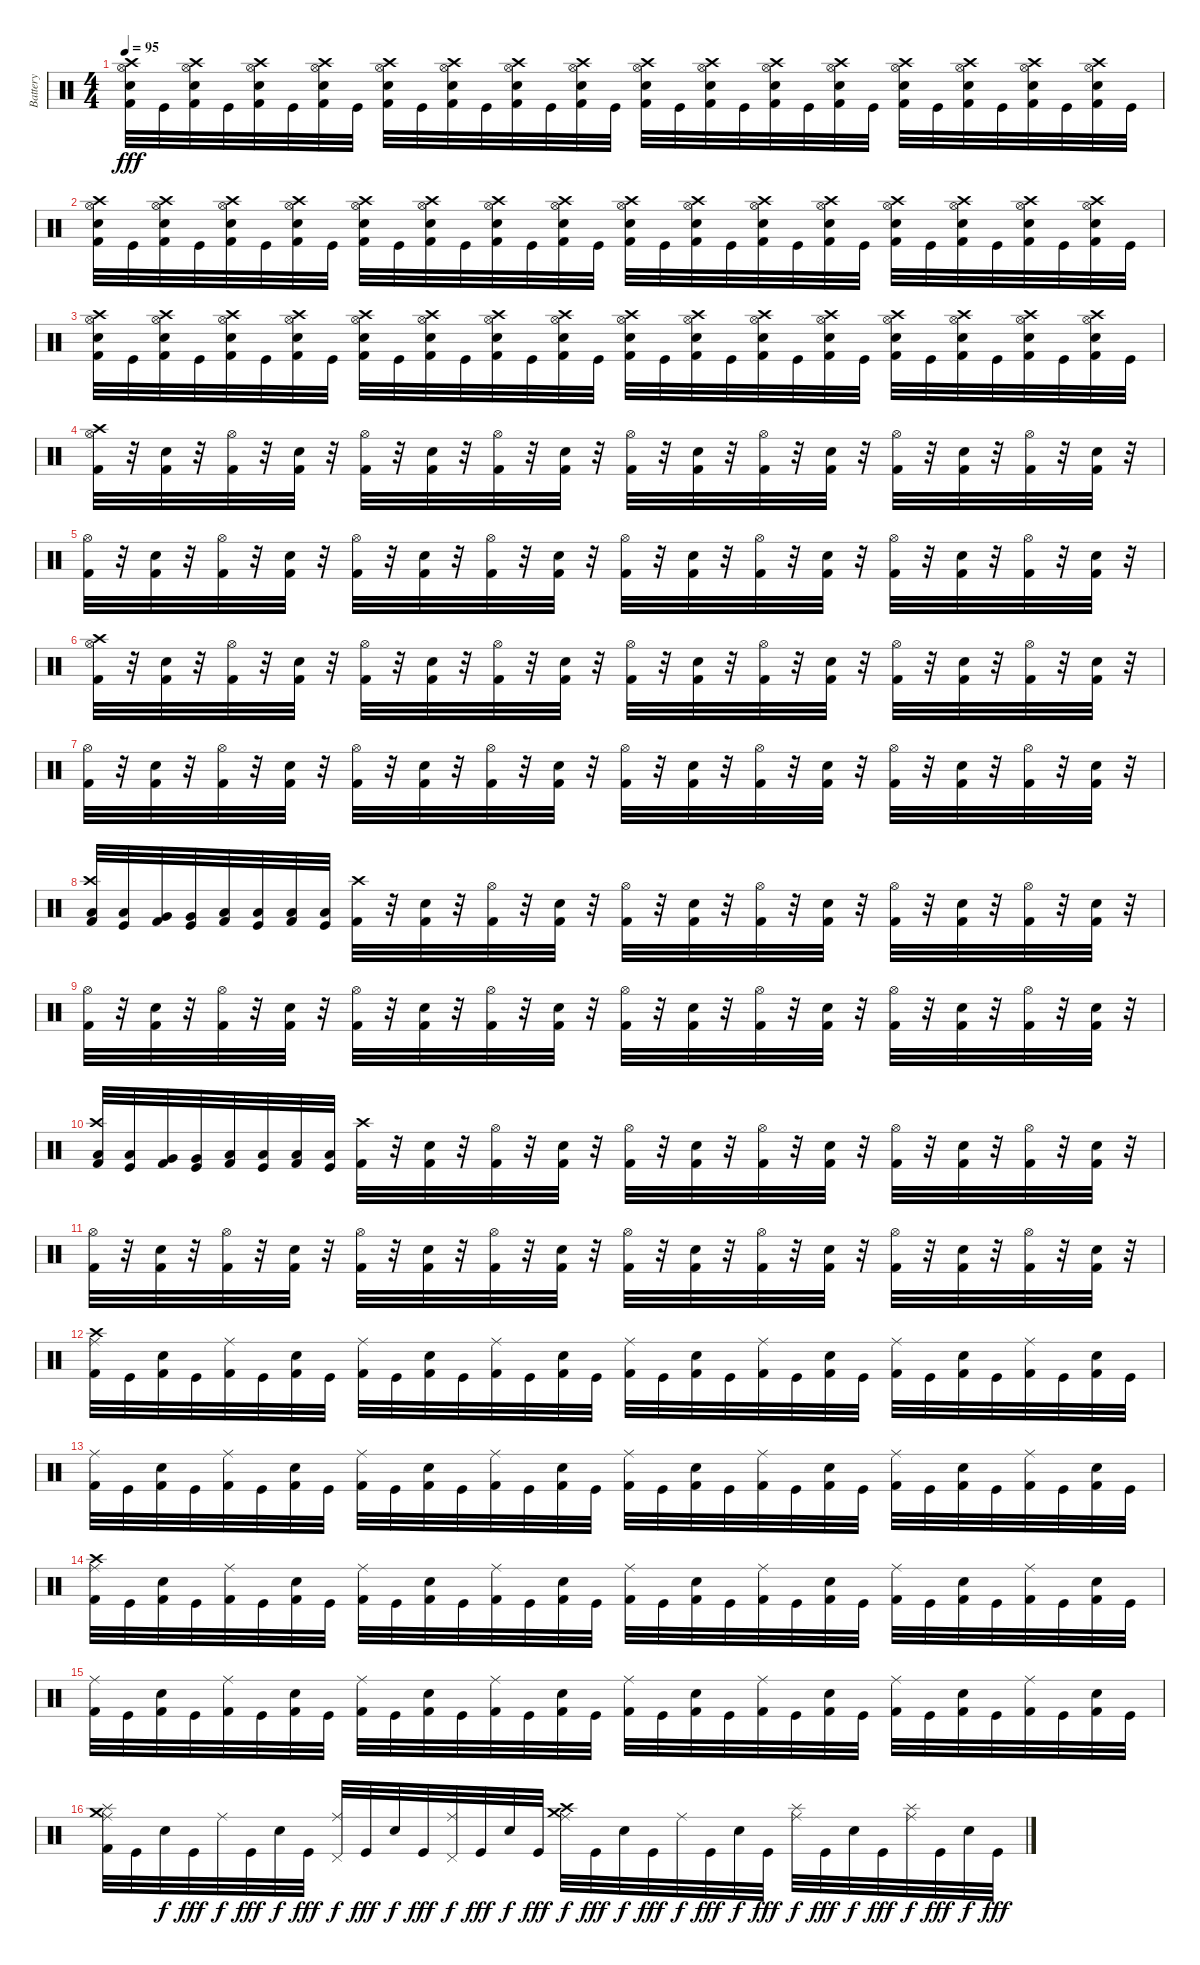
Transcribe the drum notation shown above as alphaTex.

\track ("Battery" "Battery") {instrument percussion}
\staff {score}
\articulation defaults
\ts (4 4)
\tempo 95
\clef neutral
\ks c
("Hi-Hat (open)" "Kick (hit) 2" "Crash high (hit)" "Snare (hit) 2").32{dy fff} "Kick (hit)".32 ("Crash high (hit)" "Kick (hit) 2" "Hi-Hat (open)" "Snare (hit) 2").32 "Kick (hit)".32 ("Hi-Hat (open)" "Crash high (hit)" "Kick (hit) 2" "Snare (hit) 2").32 "Kick (hit)".32 ("Kick (hit) 2" "Crash high (hit)" "Hi-Hat (open)" "Snare (hit) 2").32 "Kick (hit)".32 ("Kick (hit) 2" "Hi-Hat (open)" "Snare (hit) 2" "Crash high (hit)").32 "Kick (hit)".32 ("Kick (hit) 2" "Snare (hit) 2" "Hi-Hat (open)" "Crash high (hit)").32 "Kick (hit)".32 ("Hi-Hat (open)" "Kick (hit) 2" "Snare (hit) 2" "Crash high (hit)").32 "Kick (hit)".32 ("Kick (hit) 2" "Hi-Hat (open)" "Crash high (hit)" "Snare (hit) 2").32 "Kick (hit)".32 ("Kick (hit) 2" "Snare (hit) 2" "Hi-Hat (open)" "Crash high (hit)").32 "Kick (hit)".32 ("Snare (hit) 2" "Hi-Hat (open)" "Crash high (hit)" "Kick (hit) 2").32 "Kick (hit)".32 ("Snare (hit) 2" "Hi-Hat (open)" "Kick (hit) 2" "Crash high (hit)").32 "Kick (hit)".32 ("Snare (hit) 2" "Kick (hit) 2" "Crash high (hit)" "Hi-Hat (open)").32 "Kick (hit)".32 ("Crash high (hit)" "Hi-Hat (open)" "Kick (hit) 2" "Snare (hit) 2").32 "Kick (hit)".32 ("Snare (hit) 2" "Kick (hit) 2" "Crash high (hit)" "Hi-Hat (open)").32 "Kick (hit)".32 ("Snare (hit) 2" "Crash high (hit)" "Hi-Hat (open)" "Kick (hit) 2").32 "Kick (hit)".32 ("Hi-Hat (open)" "Kick (hit) 2" "Crash high (hit)" "Snare (hit) 2").32 "Kick (hit)".32 |
("Hi-Hat (open)" "Kick (hit) 2" "Crash high (hit)" "Snare (hit) 2").32 "Kick (hit)".32 ("Crash high (hit)" "Kick (hit) 2" "Hi-Hat (open)" "Snare (hit) 2").32 "Kick (hit)".32 ("Hi-Hat (open)" "Crash high (hit)" "Kick (hit) 2" "Snare (hit) 2").32 "Kick (hit)".32 ("Kick (hit) 2" "Crash high (hit)" "Hi-Hat (open)" "Snare (hit) 2").32 "Kick (hit)".32 ("Kick (hit) 2" "Hi-Hat (open)" "Snare (hit) 2" "Crash high (hit)").32 "Kick (hit)".32 ("Kick (hit) 2" "Snare (hit) 2" "Hi-Hat (open)" "Crash high (hit)").32 "Kick (hit)".32 ("Hi-Hat (open)" "Kick (hit) 2" "Snare (hit) 2" "Crash high (hit)").32 "Kick (hit)".32 ("Kick (hit) 2" "Hi-Hat (open)" "Crash high (hit)" "Snare (hit) 2").32 "Kick (hit)".32 ("Kick (hit) 2" "Snare (hit) 2" "Hi-Hat (open)" "Crash high (hit)").32 "Kick (hit)".32 ("Snare (hit) 2" "Hi-Hat (open)" "Crash high (hit)" "Kick (hit) 2").32 "Kick (hit)".32 ("Snare (hit) 2" "Hi-Hat (open)" "Kick (hit) 2" "Crash high (hit)").32 "Kick (hit)".32 ("Snare (hit) 2" "Kick (hit) 2" "Crash high (hit)" "Hi-Hat (open)").32 "Kick (hit)".32 ("Crash high (hit)" "Hi-Hat (open)" "Kick (hit) 2" "Snare (hit) 2").32 "Kick (hit)".32 ("Snare (hit) 2" "Kick (hit) 2" "Crash high (hit)" "Hi-Hat (open)").32 "Kick (hit)".32 ("Snare (hit) 2" "Crash high (hit)" "Hi-Hat (open)" "Kick (hit) 2").32 "Kick (hit)".32 ("Hi-Hat (open)" "Kick (hit) 2" "Crash high (hit)" "Snare (hit) 2").32 "Kick (hit)".32 |
("Hi-Hat (open)" "Kick (hit) 2" "Crash high (hit)" "Snare (hit) 2").32 "Kick (hit)".32 ("Crash high (hit)" "Kick (hit) 2" "Hi-Hat (open)" "Snare (hit) 2").32 "Kick (hit)".32 ("Hi-Hat (open)" "Crash high (hit)" "Kick (hit) 2" "Snare (hit) 2").32 "Kick (hit)".32 ("Kick (hit) 2" "Crash high (hit)" "Hi-Hat (open)" "Snare (hit) 2").32 "Kick (hit)".32 ("Kick (hit) 2" "Hi-Hat (open)" "Snare (hit) 2" "Crash high (hit)").32 "Kick (hit)".32 ("Kick (hit) 2" "Snare (hit) 2" "Hi-Hat (open)" "Crash high (hit)").32 "Kick (hit)".32 ("Hi-Hat (open)" "Kick (hit) 2" "Snare (hit) 2" "Crash high (hit)").32 "Kick (hit)".32 ("Kick (hit) 2" "Hi-Hat (open)" "Crash high (hit)" "Snare (hit) 2").32 "Kick (hit)".32 ("Kick (hit) 2" "Snare (hit) 2" "Hi-Hat (open)" "Crash high (hit)").32 "Kick (hit)".32 ("Snare (hit) 2" "Hi-Hat (open)" "Crash high (hit)" "Kick (hit) 2").32 "Kick (hit)".32 ("Snare (hit) 2" "Hi-Hat (open)" "Kick (hit) 2" "Crash high (hit)").32 "Kick (hit)".32 ("Snare (hit) 2" "Kick (hit) 2" "Crash high (hit)" "Hi-Hat (open)").32 "Kick (hit)".32 ("Crash high (hit)" "Hi-Hat (open)" "Kick (hit) 2" "Snare (hit) 2").32 "Kick (hit)".32 ("Snare (hit) 2" "Kick (hit) 2" "Crash high (hit)" "Hi-Hat (open)").32 "Kick (hit)".32 ("Snare (hit) 2" "Crash high (hit)" "Hi-Hat (open)" "Kick (hit) 2").32 "Kick (hit)".32 ("Hi-Hat (open)" "Kick (hit) 2" "Crash high (hit)" "Snare (hit) 2").32 "Kick (hit)".32 |
("Kick (hit) 2" "Hi-Hat (open)" "Crash high (hit)").32 r.32 ("Electric Snare (hit)" "Kick (hit) 2").32 r.32 ("Kick (hit) 2" "Hi-Hat (open)").32 r.32 ("Kick (hit) 2" "Electric Snare (hit)").32 r.32 ("Kick (hit) 2" "Hi-Hat (open)").32 r.32 ("Kick (hit) 2" "Electric Snare (hit)").32 r.32 ("Hi-Hat (open)" "Kick (hit) 2").32 r.32 ("Electric Snare (hit)" "Kick (hit) 2").32 r.32 ("Hi-Hat (open)" "Kick (hit) 2").32 r.32 ("Electric Snare (hit)" "Kick (hit) 2").32 r.32 ("Hi-Hat (open)" "Kick (hit) 2").32 r.32 ("Electric Snare (hit)" "Kick (hit) 2").32 r.32 ("Hi-Hat (open)" "Kick (hit) 2").32 r.32 ("Electric Snare (hit)" "Kick (hit) 2").32 r.32 ("Hi-Hat (open)" "Kick (hit) 2").32 r.32 ("Electric Snare (hit)" "Kick (hit) 2").32 r.32 |
("Kick (hit) 2" "Hi-Hat (open)").32 r.32 ("Kick (hit) 2" "Electric Snare (hit)").32 r.32 ("Kick (hit) 2" "Hi-Hat (open)").32 r.32 ("Kick (hit) 2" "Electric Snare (hit)").32 r.32 ("Hi-Hat (open)" "Kick (hit) 2").32 r.32 ("Kick (hit) 2" "Electric Snare (hit)").32 r.32 ("Kick (hit) 2" "Hi-Hat (open)").32 r.32 ("Kick (hit) 2" "Electric Snare (hit)").32 r.32 ("Kick (hit) 2" "Hi-Hat (open)").32 r.32 ("Electric Snare (hit)" "Kick (hit) 2").32 r.32 ("Hi-Hat (open)" "Kick (hit) 2").32 r.32 ("Electric Snare (hit)" "Kick (hit) 2").32 r.32 ("Hi-Hat (open)" "Kick (hit) 2").32 r.32 ("Kick (hit) 2" "Electric Snare (hit)").32 r.32 ("Kick (hit) 2" "Hi-Hat (open)").32 r.32 ("Electric Snare (hit)" "Kick (hit) 2").32 r.32 |
("Kick (hit) 2" "Hi-Hat (open)" "Crash high (hit)").32 r.32 ("Electric Snare (hit)" "Kick (hit) 2").32 r.32 ("Kick (hit) 2" "Hi-Hat (open)").32 r.32 ("Kick (hit) 2" "Electric Snare (hit)").32 r.32 ("Kick (hit) 2" "Hi-Hat (open)").32 r.32 ("Kick (hit) 2" "Electric Snare (hit)").32 r.32 ("Hi-Hat (open)" "Kick (hit) 2").32 r.32 ("Electric Snare (hit)" "Kick (hit) 2").32 r.32 ("Hi-Hat (open)" "Kick (hit) 2").32 r.32 ("Electric Snare (hit)" "Kick (hit) 2").32 r.32 ("Hi-Hat (open)" "Kick (hit) 2").32 r.32 ("Electric Snare (hit)" "Kick (hit) 2").32 r.32 ("Hi-Hat (open)" "Kick (hit) 2").32 r.32 ("Electric Snare (hit)" "Kick (hit) 2").32 r.32 ("Hi-Hat (open)" "Kick (hit) 2").32 r.32 ("Electric Snare (hit)" "Kick (hit) 2").32 r.32 |
("Kick (hit) 2" "Hi-Hat (open)").32 r.32 ("Kick (hit) 2" "Electric Snare (hit)").32 r.32 ("Kick (hit) 2" "Hi-Hat (open)").32 r.32 ("Kick (hit) 2" "Electric Snare (hit)").32 r.32 ("Hi-Hat (open)" "Kick (hit) 2").32 r.32 ("Kick (hit) 2" "Electric Snare (hit)").32 r.32 ("Kick (hit) 2" "Hi-Hat (open)").32 r.32 ("Kick (hit) 2" "Electric Snare (hit)").32 r.32 ("Kick (hit) 2" "Hi-Hat (open)").32 r.32 ("Electric Snare (hit)" "Kick (hit) 2").32 r.32 ("Hi-Hat (open)" "Kick (hit) 2").32 r.32 ("Electric Snare (hit)" "Kick (hit) 2").32 r.32 ("Hi-Hat (open)" "Kick (hit) 2").32 r.32 ("Kick (hit) 2" "Electric Snare (hit)").32 r.32 ("Kick (hit) 2" "Hi-Hat (open)").32 r.32 ("Electric Snare (hit)" "Kick (hit) 2").32 r.32 |
("Crash high (hit)" "Low Tom (hit)" "Kick (hit) 2").32 ("Low Tom (hit)" "Kick (hit)").32 ("Very Low Tom (hit)" "Kick (hit) 2").32 ("Very Low Tom (hit)" "Kick (hit)").32 ("Low Floor Tom (hit)" "Kick (hit) 2").32 ("Kick (hit)" "Low Floor Tom (hit)").32 ("Low Tom (hit)" "Kick (hit) 2").32 ("Kick (hit)" "Low Tom (hit)").32 ("Crash high (hit)" "Kick (hit) 2").32 r.32 ("Electric Snare (hit)" "Kick (hit) 2").32 r.32 ("Kick (hit) 2" "Hi-Hat (open)").32 r.32 ("Kick (hit) 2" "Electric Snare (hit)").32 r.32 ("Kick (hit) 2" "Hi-Hat (open)").32 r.32 ("Electric Snare (hit)" "Kick (hit) 2").32 r.32 ("Hi-Hat (open)" "Kick (hit) 2").32 r.32 ("Electric Snare (hit)" "Kick (hit) 2").32 r.32 ("Hi-Hat (open)" "Kick (hit) 2").32 r.32 ("Electric Snare (hit)" "Kick (hit) 2").32 r.32 ("Kick (hit) 2" "Hi-Hat (open)").32 r.32 ("Kick (hit) 2" "Electric Snare (hit)").32 r.32 |
("Hi-Hat (open)" "Kick (hit) 2").32 r.32 ("Kick (hit) 2" "Electric Snare (hit)").32 r.32 ("Kick (hit) 2" "Hi-Hat (open)").32 r.32 ("Electric Snare (hit)" "Kick (hit) 2").32 r.32 ("Hi-Hat (open)" "Kick (hit) 2").32 r.32 ("Kick (hit) 2" "Electric Snare (hit)").32 r.32 ("Kick (hit) 2" "Hi-Hat (open)").32 r.32 ("Kick (hit) 2" "Electric Snare (hit)").32 r.32 ("Hi-Hat (open)" "Kick (hit) 2").32 r.32 ("Kick (hit) 2" "Electric Snare (hit)").32 r.32 ("Kick (hit) 2" "Hi-Hat (open)").32 r.32 ("Kick (hit) 2" "Electric Snare (hit)").32 r.32 ("Hi-Hat (open)" "Kick (hit) 2").32 r.32 ("Electric Snare (hit)" "Kick (hit) 2").32 r.32 ("Hi-Hat (open)" "Kick (hit) 2").32 r.32 ("Kick (hit) 2" "Electric Snare (hit)").32 r.32 |
("Crash high (hit)" "Low Tom (hit)" "Kick (hit) 2").32 ("Low Tom (hit)" "Kick (hit)").32 ("Very Low Tom (hit)" "Kick (hit) 2").32 ("Very Low Tom (hit)" "Kick (hit)").32 ("Low Floor Tom (hit)" "Kick (hit) 2").32 ("Kick (hit)" "Low Floor Tom (hit)").32 ("Low Tom (hit)" "Kick (hit) 2").32 ("Kick (hit)" "Low Tom (hit)").32 ("Crash high (hit)" "Kick (hit) 2").32 r.32 ("Electric Snare (hit)" "Kick (hit) 2").32 r.32 ("Kick (hit) 2" "Hi-Hat (open)").32 r.32 ("Kick (hit) 2" "Electric Snare (hit)").32 r.32 ("Kick (hit) 2" "Hi-Hat (open)").32 r.32 ("Electric Snare (hit)" "Kick (hit) 2").32 r.32 ("Hi-Hat (open)" "Kick (hit) 2").32 r.32 ("Electric Snare (hit)" "Kick (hit) 2").32 r.32 ("Hi-Hat (open)" "Kick (hit) 2").32 r.32 ("Electric Snare (hit)" "Kick (hit) 2").32 r.32 ("Kick (hit) 2" "Hi-Hat (open)").32 r.32 ("Kick (hit) 2" "Electric Snare (hit)").32 r.32 |
("Hi-Hat (open)" "Kick (hit) 2").32 r.32 ("Kick (hit) 2" "Electric Snare (hit)").32 r.32 ("Kick (hit) 2" "Hi-Hat (open)").32 r.32 ("Electric Snare (hit)" "Kick (hit) 2").32 r.32 ("Hi-Hat (open)" "Kick (hit) 2").32 r.32 ("Kick (hit) 2" "Electric Snare (hit)").32 r.32 ("Kick (hit) 2" "Hi-Hat (open)").32 r.32 ("Kick (hit) 2" "Electric Snare (hit)").32 r.32 ("Hi-Hat (open)" "Kick (hit) 2").32 r.32 ("Kick (hit) 2" "Electric Snare (hit)").32 r.32 ("Kick (hit) 2" "Hi-Hat (open)").32 r.32 ("Kick (hit) 2" "Electric Snare (hit)").32 r.32 ("Hi-Hat (open)" "Kick (hit) 2").32 r.32 ("Electric Snare (hit)" "Kick (hit) 2").32 r.32 ("Hi-Hat (open)" "Kick (hit) 2").32 r.32 ("Kick (hit) 2" "Electric Snare (hit)").32 r.32 |
("Ride (middle)" "Kick (hit) 2" "Crash high (hit)").32 "Kick (hit)".32 ("Kick (hit) 2" "Electric Snare (hit)").32 "Kick (hit)".32 ("Ride (middle)" "Kick (hit) 2").32 "Kick (hit)".32 ("Electric Snare (hit)" "Kick (hit) 2").32 "Kick (hit)".32 ("Ride (middle)" "Kick (hit) 2").32 "Kick (hit)".32 ("Kick (hit) 2" "Electric Snare (hit)").32 "Kick (hit)".32 ("Kick (hit) 2" "Ride (middle)").32 "Kick (hit)".32 ("Kick (hit) 2" "Electric Snare (hit)").32 "Kick (hit)".32 ("Kick (hit) 2" "Ride (middle)").32 "Kick (hit)".32 ("Electric Snare (hit)" "Kick (hit) 2").32 "Kick (hit)".32 ("Kick (hit) 2" "Ride (middle)").32 "Kick (hit)".32 ("Kick (hit) 2" "Electric Snare (hit)").32 "Kick (hit)".32 ("Ride (middle)" "Kick (hit) 2").32 "Kick (hit)".32 ("Electric Snare (hit)" "Kick (hit) 2").32 "Kick (hit)".32 ("Kick (hit) 2" "Ride (middle)").32 "Kick (hit)".32 ("Electric Snare (hit)" "Kick (hit) 2").32 "Kick (hit)".32 |
("Kick (hit) 2" "Ride (middle)").32 "Kick (hit)".32 ("Kick (hit) 2" "Electric Snare (hit)").32 "Kick (hit)".32 ("Ride (middle)" "Kick (hit) 2").32 "Kick (hit)".32 ("Kick (hit) 2" "Electric Snare (hit)").32 "Kick (hit)".32 ("Ride (middle)" "Kick (hit) 2").32 "Kick (hit)".32 ("Electric Snare (hit)" "Kick (hit) 2").32 "Kick (hit)".32 ("Ride (middle)" "Kick (hit) 2").32 "Kick (hit)".32 ("Electric Snare (hit)" "Kick (hit) 2").32 "Kick (hit)".32 ("Ride (middle)" "Kick (hit) 2").32 "Kick (hit)".32 ("Kick (hit) 2" "Electric Snare (hit)").32 "Kick (hit)".32 ("Ride (middle)" "Kick (hit) 2").32 "Kick (hit)".32 ("Kick (hit) 2" "Electric Snare (hit)").32 "Kick (hit)".32 ("Kick (hit) 2" "Ride (middle)").32 "Kick (hit)".32 ("Electric Snare (hit)" "Kick (hit) 2").32 "Kick (hit)".32 ("Ride (middle)" "Kick (hit) 2").32 "Kick (hit)".32 ("Kick (hit) 2" "Electric Snare (hit)").32 "Kick (hit)".32 |
("Ride (middle)" "Kick (hit) 2" "Crash high (hit)").32 "Kick (hit)".32 ("Electric Snare (hit)" "Kick (hit) 2").32 "Kick (hit)".32 ("Kick (hit) 2" "Ride (middle)").32 "Kick (hit)".32 ("Kick (hit) 2" "Electric Snare (hit)").32 "Kick (hit)".32 ("Kick (hit) 2" "Ride (middle)").32 "Kick (hit)".32 ("Electric Snare (hit)" "Kick (hit) 2").32 "Kick (hit)".32 ("Ride (middle)" "Kick (hit) 2").32 "Kick (hit)".32 ("Electric Snare (hit)" "Kick (hit) 2").32 "Kick (hit)".32 ("Kick (hit) 2" "Ride (middle)").32 "Kick (hit)".32 ("Kick (hit) 2" "Electric Snare (hit)").32 "Kick (hit)".32 ("Kick (hit) 2" "Ride (middle)").32 "Kick (hit)".32 ("Electric Snare (hit)" "Kick (hit) 2").32 "Kick (hit)".32 ("Kick (hit) 2" "Ride (middle)").32 "Kick (hit)".32 ("Kick (hit) 2" "Electric Snare (hit)").32 "Kick (hit)".32 ("Ride (middle)" "Kick (hit) 2").32 "Kick (hit)".32 ("Kick (hit) 2" "Electric Snare (hit)").32 "Kick (hit)".32 |
("Kick (hit) 2" "Ride (middle)").32 "Kick (hit)".32 ("Electric Snare (hit)" "Kick (hit) 2").32 "Kick (hit)".32 ("Ride (middle)" "Kick (hit) 2").32 "Kick (hit)".32 ("Kick (hit) 2" "Electric Snare (hit)").32 "Kick (hit)".32 ("Ride (middle)" "Kick (hit) 2").32 "Kick (hit)".32 ("Electric Snare (hit)" "Kick (hit) 2").32 "Kick (hit)".32 ("Kick (hit) 2" "Ride (middle)").32 "Kick (hit)".32 ("Electric Snare (hit)" "Kick (hit) 2").32 "Kick (hit)".32 ("Ride (middle)" "Kick (hit) 2").32 "Kick (hit)".32 ("Electric Snare (hit)" "Kick (hit) 2").32 "Kick (hit)".32 ("Kick (hit) 2" "Ride (middle)").32 "Kick (hit)".32 ("Electric Snare (hit)" "Kick (hit) 2").32 "Kick (hit)".32 ("Ride (middle)" "Kick (hit) 2").32 "Kick (hit)".32 ("Electric Snare (hit)" "Kick (hit) 2").32 "Kick (hit)".32 ("Kick (hit) 2" "Ride (middle)").32 "Kick (hit)".32 ("Kick (hit) 2" "Electric Snare (hit)").32 "Kick (hit)".32 |
("Ride (middle)" "Kick (hit) 2" "Splash (hit)" "Crash medium (hit)").32 "Kick (hit)".32 "Electric Snare (hit)".32{dy f} "Kick (hit)".32{dy fff} "Ride (middle)".32{dy f} "Kick (hit)".32{dy fff} "Electric Snare (hit)".32{dy f} "Kick (hit)".32{dy fff} ("Ride (middle)" "Pedal Hi-Hat (hit)").32{dy f} "Kick (hit)".32{dy fff} "Electric Snare (hit)".32{dy f} "Kick (hit)".32{dy fff} ("Ride (middle)" "Pedal Hi-Hat (hit)").32{dy f} "Kick (hit)".32{dy fff} "Electric Snare (hit)".32{dy f} "Kick (hit)".32{dy fff} ("Ride (middle)" "Crash medium (hit)" "Crash high (hit)").32{dy f} "Kick (hit)".32{dy fff} "Electric Snare (hit)".32{dy f} "Kick (hit)".32{dy fff} "Ride (middle)".32{dy f} "Kick (hit)".32{dy fff} "Electric Snare (hit)".32{dy f} "Kick (hit)".32{dy fff} ("Ride (middle)" "Splash (hit)").32{dy f} "Kick (hit)".32{dy fff} "Electric Snare (hit)".32{dy f} "Kick (hit)".32{dy fff} ("Ride (middle)" "Splash (hit)").32{dy f} "Kick (hit)".32{dy fff} "Electric Snare (hit)".32{dy f} "Kick (hit)".32{dy fff}
